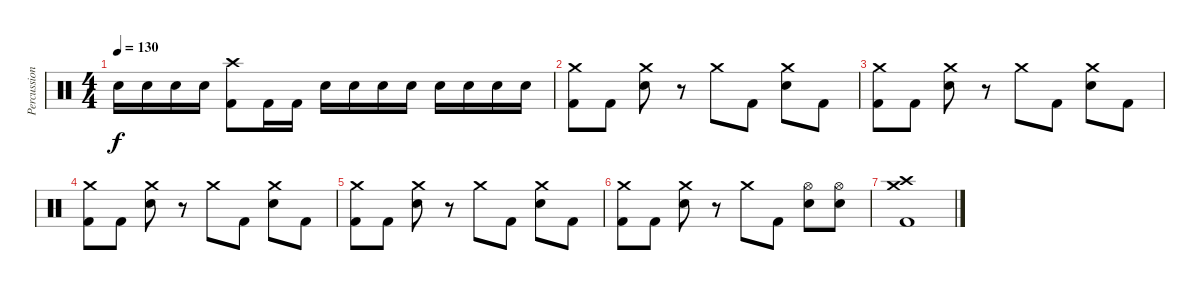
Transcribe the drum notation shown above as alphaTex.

\track ("Percussion" "Percussion") {instrument percussion}
\staff {score}
\articulation defaults
\ts (4 4)
\tempo 130
\clef neutral
\ks c "Electric Snare (hit)".16{dy f} "Electric Snare (hit)".16 "Electric Snare (hit)".16 "Electric Snare (hit)".16
("Crash high (hit)" "Kick (hit) 2").8 "Kick (hit) 2".16 "Kick (hit) 2".16 "Electric Snare (hit)".16 "Electric Snare (hit)".16 "Electric Snare (hit)".16 "Electric Snare (hit)".16 "Electric Snare (hit)".16 "Electric Snare (hit)".16 "Electric Snare (hit)".16 "Electric Snare (hit)".16 |
("Crash medium (hit)" "Kick (hit) 2").8 "Kick (hit) 2".8 ("Crash medium (hit)" "Electric Snare (hit)").8 r.8 "Crash medium (hit)".8 "Kick (hit) 2".8 ("Crash medium (hit)" "Electric Snare (hit)").8 "Kick (hit) 2".8 |
("Crash medium (hit)" "Kick (hit) 2").8 "Kick (hit) 2".8 ("Crash medium (hit)" "Electric Snare (hit)").8 r.8 "Crash medium (hit)".8 "Kick (hit) 2".8 ("Crash medium (hit)" "Electric Snare (hit)").8 "Kick (hit) 2".8 |
("Crash medium (hit)" "Kick (hit) 2").8 "Kick (hit) 2".8 ("Crash medium (hit)" "Electric Snare (hit)").8 r.8 "Crash medium (hit)".8 "Kick (hit) 2".8 ("Crash medium (hit)" "Electric Snare (hit)").8 "Kick (hit) 2".8 |
("Crash medium (hit)" "Kick (hit) 2").8 "Kick (hit) 2".8 ("Crash medium (hit)" "Electric Snare (hit)").8 r.8 "Crash medium (hit)".8 "Kick (hit) 2".8 ("Crash medium (hit)" "Electric Snare (hit)").8 "Kick (hit) 2".8 |
("Crash medium (hit)" "Kick (hit) 2").8 "Kick (hit) 2".8 ("Crash medium (hit)" "Electric Snare (hit)").8 r.8 "Crash medium (hit)".8 "Kick (hit) 2".8 ("Hi-Hat (open)" "Electric Snare (hit)").8 ("Hi-Hat (open)" "Electric Snare (hit)").8 |
("Crash medium (hit)" "Crash high (hit)" "Kick (hit) 2").1
